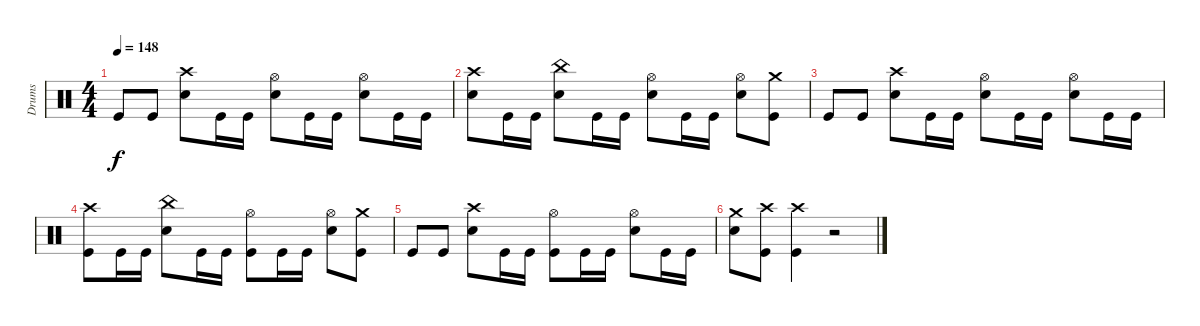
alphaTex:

\track ("Drums" "Drums") {instrument percussion}
\staff {score}
\articulation defaults
\ts (4 4)
\tempo 148
\clef neutral
\ks c "Kick (hit)".8{dy f} "Kick (hit)".8
("Crash high (hit)" "Electric Snare (hit)").8 "Kick (hit)".16 "Kick (hit)".16 ("Hi-Hat (open)" "Electric Snare (hit)").8 "Kick (hit)".16 "Kick (hit)".16 ("Hi-Hat (open)" "Electric Snare (hit)").8 "Kick (hit)".16 "Kick (hit)".16 |
("Crash high (hit)" "Electric Snare (hit)").8 "Kick (hit)".16 "Kick (hit)".16 ("China (hit)" "Electric Snare (hit)").8 "Kick (hit)".16 "Kick (hit)".16 ("Hi-Hat (open)" "Electric Snare (hit)").8 "Kick (hit)".16 "Kick (hit)".16 ("Hi-Hat (open)" "Electric Snare (hit)").8 ("Crash medium (hit)" "Kick (hit)").8 |
"Kick (hit)".8 "Kick (hit)".8 ("Crash high (hit)" "Electric Snare (hit)").8 "Kick (hit)".16 "Kick (hit)".16 ("Hi-Hat (open)" "Electric Snare (hit)").8 "Kick (hit)".16 "Kick (hit)".16 ("Hi-Hat (open)" "Electric Snare (hit)").8 "Kick (hit)".16 "Kick (hit)".16 |
("Crash high (hit)" "Kick (hit)").8 "Kick (hit)".16 "Kick (hit)".16 ("China (hit)" "Electric Snare (hit)").8 "Kick (hit)".16 "Kick (hit)".16 ("Hi-Hat (open)" "Kick (hit)").8 "Kick (hit)".16 "Kick (hit)".16 ("Hi-Hat (open)" "Electric Snare (hit)").8 ("Crash medium (hit)" "Kick (hit)").8 |
"Kick (hit)".8 "Kick (hit)".8 ("Crash high (hit)" "Electric Snare (hit)").8 "Kick (hit)".16 "Kick (hit)".16 ("Hi-Hat (open)" "Kick (hit)").8 "Kick (hit)".16 "Kick (hit)".16 ("Hi-Hat (open)" "Electric Snare (hit)").8 "Kick (hit)".16 "Kick (hit)".16 |
("Crash medium (hit)" "Electric Snare (hit)").8 ("Crash high (hit)" "Kick (hit)").8 ("Crash high (hit)" "Kick (hit)").4 r.2
